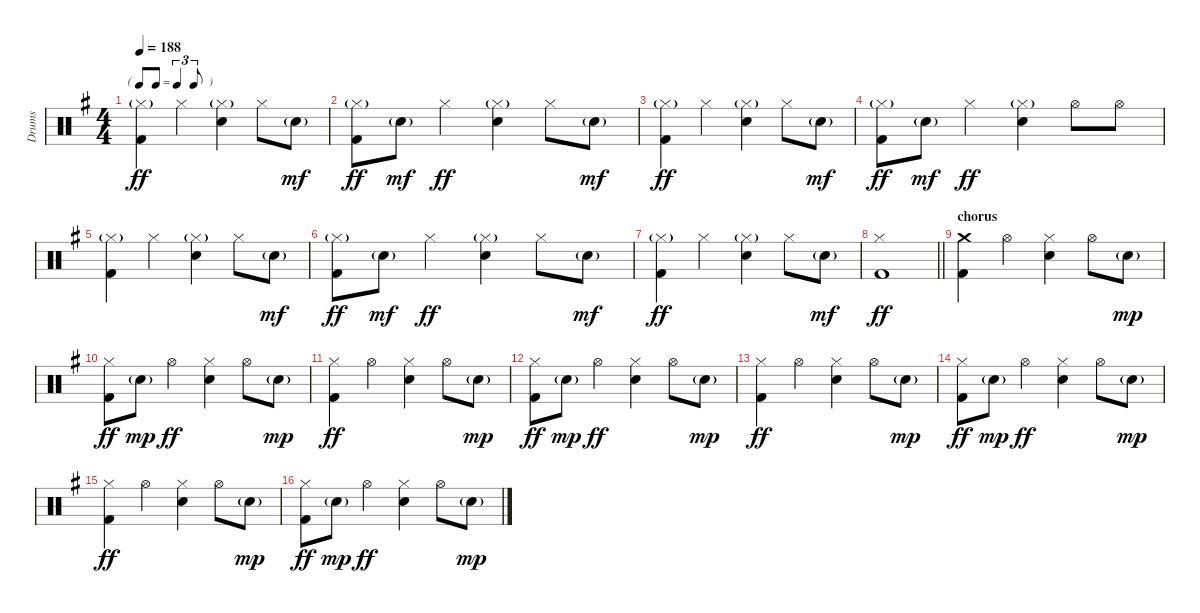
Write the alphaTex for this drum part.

\track ("Drums" "Drums") {instrument percussion}
\staff {score}
\articulation defaults
\ts (4 4)
\tf triplet8th
\tempo 188
\clef neutral
\ks g
("Hi-Hat (closed)"{g} "Kick (hit) 2").4{dy ff} "Hi-Hat (closed)".4 ("Hi-Hat (closed)"{g} "Snare (hit) 2").4 "Hi-Hat (closed)".8 "Snare (hit) 2"{g}.8{dy mf} |
("Hi-Hat (closed)"{g} "Kick (hit) 2").8{dy ff} "Snare (hit) 2"{g}.8{dy mf} "Hi-Hat (closed)".4{dy ff} ("Hi-Hat (closed)"{g} "Snare (hit) 2").4 "Hi-Hat (closed)".8 "Snare (hit) 2"{g}.8{dy mf} |
("Hi-Hat (closed)"{g} "Kick (hit) 2").4{dy ff} "Hi-Hat (closed)".4 ("Hi-Hat (closed)"{g} "Snare (hit) 2").4 "Hi-Hat (closed)".8 "Snare (hit) 2"{g}.8{dy mf} |
("Hi-Hat (closed)"{g} "Kick (hit) 2").8{dy ff} "Snare (hit) 2"{g}.8{dy mf} "Hi-Hat (closed)".4{dy ff} ("Hi-Hat (closed)"{g} "Snare (hit) 2").4 "Hi-Hat (open)".8 "Hi-Hat (open)".8 |
("Hi-Hat (closed)"{g} "Kick (hit) 2").4 "Hi-Hat (closed)".4 ("Hi-Hat (closed)"{g} "Snare (hit) 2").4 "Hi-Hat (closed)".8 "Snare (hit) 2"{g}.8{dy mf} |
("Hi-Hat (closed)"{g} "Kick (hit) 2").8{dy ff} "Snare (hit) 2"{g}.8{dy mf} "Hi-Hat (closed)".4{dy ff} ("Hi-Hat (closed)"{g} "Snare (hit) 2").4 "Hi-Hat (closed)".8 "Snare (hit) 2"{g}.8{dy mf} |
("Hi-Hat (closed)"{g} "Kick (hit) 2").4{dy ff} "Hi-Hat (closed)".4 ("Hi-Hat (closed)"{g} "Snare (hit) 2").4 "Hi-Hat (closed)".8 "Snare (hit) 2"{g}.8{dy mf} |
\barLineRight lightlight
("Hi-Hat (closed)" "Kick (hit) 2").1{dy ff} |
\section ("" "chorus")
("Crash medium (hit)" "Kick (hit) 2").4 "Hi-Hat (open)".4 ("Hi-Hat (closed)" "Snare (hit) 2").4 "Hi-Hat (open)".8 "Snare (hit) 2"{g}.8{dy mp} |
("Hi-Hat (closed)" "Kick (hit) 2").8{dy ff} "Snare (hit) 2"{g}.8{dy mp} "Hi-Hat (open)".4{dy ff} ("Hi-Hat (closed)" "Snare (hit) 2").4 "Hi-Hat (open)".8 "Snare (hit) 2"{g}.8{dy mp} |
("Hi-Hat (closed)" "Kick (hit) 2").4{dy ff} "Hi-Hat (open)".4 ("Hi-Hat (closed)" "Snare (hit) 2").4 "Hi-Hat (open)".8 "Snare (hit) 2"{g}.8{dy mp} |
("Hi-Hat (closed)" "Kick (hit) 2").8{dy ff} "Snare (hit) 2"{g}.8{dy mp} "Hi-Hat (open)".4{dy ff} ("Hi-Hat (closed)" "Snare (hit) 2").4 "Hi-Hat (open)".8 "Snare (hit) 2"{g}.8{dy mp} |
("Hi-Hat (closed)" "Kick (hit) 2").4{dy ff} "Hi-Hat (open)".4 ("Hi-Hat (closed)" "Snare (hit) 2").4 "Hi-Hat (open)".8 "Snare (hit) 2"{g}.8{dy mp} |
("Hi-Hat (closed)" "Kick (hit) 2").8{dy ff} "Snare (hit) 2"{g}.8{dy mp} "Hi-Hat (open)".4{dy ff} ("Hi-Hat (closed)" "Snare (hit) 2").4 "Hi-Hat (open)".8 "Snare (hit) 2"{g}.8{dy mp} |
("Hi-Hat (closed)" "Kick (hit) 2").4{dy ff} "Hi-Hat (open)".4 ("Hi-Hat (closed)" "Snare (hit) 2").4 "Hi-Hat (open)".8 "Snare (hit) 2"{g}.8{dy mp} |
("Hi-Hat (closed)" "Kick (hit) 2").8{dy ff} "Snare (hit) 2"{g}.8{dy mp} "Hi-Hat (open)".4{dy ff} ("Hi-Hat (closed)" "Snare (hit) 2").4 "Hi-Hat (open)".8 "Snare (hit) 2"{g}.8{dy mp}
